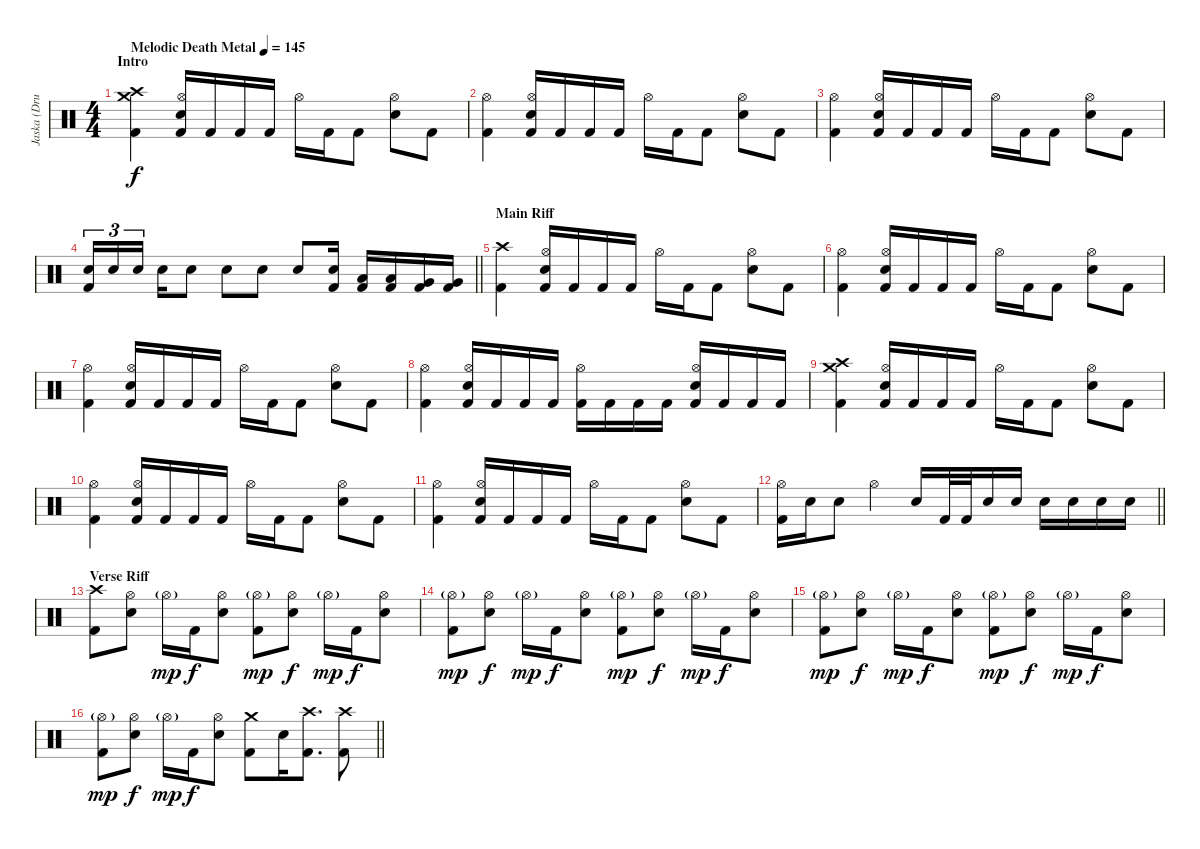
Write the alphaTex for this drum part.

\track ("Jaska (Drums)" "Jaska (Dru") {instrument percussion}
\staff {score}
\articulation defaults
\ts (4 4)
\section ("" "Intro")
\tempo (145 "Melodic Death Metal")
\clef neutral
\ks c
("Crash medium (hit)" "Crash high (hit)" "Kick (hit) 2").4{dy f volume 16 balance 8} ("Hi-Hat (open)" "Electric Snare (hit)" "Kick (hit) 2").16 "Kick (hit) 2".16 "Kick (hit) 2".16 "Kick (hit) 2".16 "Hi-Hat (open)".16 "Kick (hit) 2".16 "Kick (hit) 2".8 ("Hi-Hat (open)" "Electric Snare (hit)").8 "Kick (hit) 2".8 |
("Hi-Hat (open)" "Kick (hit) 2").4 ("Hi-Hat (open)" "Electric Snare (hit)" "Kick (hit) 2").16 "Kick (hit) 2".16 "Kick (hit) 2".16 "Kick (hit) 2".16 "Hi-Hat (open)".16 "Kick (hit) 2".16 "Kick (hit) 2".8 ("Hi-Hat (open)" "Electric Snare (hit)").8 "Kick (hit) 2".8 |
("Hi-Hat (open)" "Kick (hit) 2").4 ("Hi-Hat (open)" "Electric Snare (hit)" "Kick (hit) 2").16 "Kick (hit) 2".16 "Kick (hit) 2".16 "Kick (hit) 2".16 "Hi-Hat (open)".16 "Kick (hit) 2".16 "Kick (hit) 2".8 ("Hi-Hat (open)" "Electric Snare (hit)").8 "Kick (hit) 2".8 |
\barLineRight lightlight
("Electric Snare (hit)" "Kick (hit) 2").16{tu (3 2)} "Electric Snare (hit)".16{tu (3 2)} "Electric Snare (hit)".16{tu (3 2) beam splitsecondary} "Electric Snare (hit)".16 "Electric Snare (hit)".8 "Electric Snare (hit)".8 "Electric Snare (hit)".8 "Electric Snare (hit)".8 ("Electric Snare (hit)" "Kick (hit) 2").16 ("Low Tom (hit)" "Kick (hit) 2").16 ("Low Tom (hit)" "Kick (hit) 2").16 ("Very Low Tom (hit)" "Kick (hit) 2").16 ("Very Low Tom (hit)" "Kick (hit) 2").16 |
\section ("" "Main Riff")
("Crash high (hit)" "Kick (hit) 2").4{volume 16 balance 8} ("Hi-Hat (open)" "Electric Snare (hit)" "Kick (hit) 2").16 "Kick (hit) 2".16 "Kick (hit) 2".16 "Kick (hit) 2".16 "Hi-Hat (open)".16 "Kick (hit) 2".16 "Kick (hit) 2".8 ("Hi-Hat (open)" "Electric Snare (hit)").8 "Kick (hit) 2".8 |
("Hi-Hat (open)" "Kick (hit) 2").4 ("Hi-Hat (open)" "Electric Snare (hit)" "Kick (hit) 2").16 "Kick (hit) 2".16 "Kick (hit) 2".16 "Kick (hit) 2".16 "Hi-Hat (open)".16 "Kick (hit) 2".16 "Kick (hit) 2".8 ("Hi-Hat (open)" "Electric Snare (hit)").8 "Kick (hit) 2".8 |
("Hi-Hat (open)" "Kick (hit) 2").4 ("Hi-Hat (open)" "Electric Snare (hit)" "Kick (hit) 2").16 "Kick (hit) 2".16 "Kick (hit) 2".16 "Kick (hit) 2".16 "Hi-Hat (open)".16 "Kick (hit) 2".16 "Kick (hit) 2".8 ("Hi-Hat (open)" "Electric Snare (hit)").8 "Kick (hit) 2".8 |
("Hi-Hat (open)" "Kick (hit) 2").4 ("Hi-Hat (open)" "Electric Snare (hit)" "Kick (hit) 2").16 "Kick (hit) 2".16 "Kick (hit) 2".16 "Kick (hit) 2".16 ("Hi-Hat (open)" "Kick (hit) 2").16 "Kick (hit) 2".16 "Kick (hit) 2".16 "Kick (hit) 2".16 ("Hi-Hat (open)" "Electric Snare (hit)" "Kick (hit) 2").16 "Kick (hit) 2".16 "Kick (hit) 2".16 "Kick (hit) 2".16 |
("Crash medium (hit)" "Crash high (hit)" "Kick (hit) 2").4 ("Hi-Hat (open)" "Electric Snare (hit)" "Kick (hit) 2").16 "Kick (hit) 2".16 "Kick (hit) 2".16 "Kick (hit) 2".16 "Hi-Hat (open)".16 "Kick (hit) 2".16 "Kick (hit) 2".8 ("Hi-Hat (open)" "Electric Snare (hit)").8 "Kick (hit) 2".8 |
("Hi-Hat (open)" "Kick (hit) 2").4 ("Hi-Hat (open)" "Electric Snare (hit)" "Kick (hit) 2").16 "Kick (hit) 2".16 "Kick (hit) 2".16 "Kick (hit) 2".16 "Hi-Hat (open)".16 "Kick (hit) 2".16 "Kick (hit) 2".8 ("Hi-Hat (open)" "Electric Snare (hit)").8 "Kick (hit) 2".8 |
("Hi-Hat (open)" "Kick (hit) 2").4 ("Hi-Hat (open)" "Electric Snare (hit)" "Kick (hit) 2").16 "Kick (hit) 2".16 "Kick (hit) 2".16 "Kick (hit) 2".16 "Hi-Hat (open)".16 "Kick (hit) 2".16 "Kick (hit) 2".8 ("Hi-Hat (open)" "Electric Snare (hit)").8 "Kick (hit) 2".8 |
\barLineRight lightlight
("Hi-Hat (open)" "Kick (hit) 2").16 "Electric Snare (hit)".16 "Electric Snare (hit)".8 "Hi-Hat (open)".4 "Electric Snare (hit)".16 "Kick (hit) 2".32 "Kick (hit) 2".32 "Electric Snare (hit)".16 "Electric Snare (hit)".16 "Electric Snare (hit)".16 "Electric Snare (hit)".16 "Electric Snare (hit)".16 "Electric Snare (hit)".16 |
\section ("" "Verse Riff")
("Crash high (hit)" "Kick (hit) 2").8 ("Hi-Hat (open)" "Electric Snare (hit)").8 "Hi-Hat (open)"{g}.16{dy mp} "Kick (hit) 2".16{dy f} ("Hi-Hat (open)" "Electric Snare (hit)").8 ("Hi-Hat (open)"{g} "Kick (hit) 2").8{dy mp} ("Hi-Hat (open)" "Electric Snare (hit)").8{dy f} "Hi-Hat (open)"{g}.16{dy mp} "Kick (hit) 2".16{dy f} ("Hi-Hat (open)" "Electric Snare (hit)").8 |
("Hi-Hat (open)"{g} "Kick (hit) 2").8{dy mp} ("Hi-Hat (open)" "Electric Snare (hit)").8{dy f} "Hi-Hat (open)"{g}.16{dy mp} "Kick (hit) 2".16{dy f} ("Hi-Hat (open)" "Electric Snare (hit)").8 ("Hi-Hat (open)"{g} "Kick (hit) 2").8{dy mp} ("Hi-Hat (open)" "Electric Snare (hit)").8{dy f} "Hi-Hat (open)"{g}.16{dy mp} "Kick (hit) 2".16{dy f} ("Hi-Hat (open)" "Electric Snare (hit)").8 |
("Hi-Hat (open)"{g} "Kick (hit) 2").8{dy mp} ("Hi-Hat (open)" "Electric Snare (hit)").8{dy f} "Hi-Hat (open)"{g}.16{dy mp} "Kick (hit) 2".16{dy f} ("Hi-Hat (open)" "Electric Snare (hit)").8 ("Hi-Hat (open)"{g} "Kick (hit) 2").8{dy mp} ("Hi-Hat (open)" "Electric Snare (hit)").8{dy f} "Hi-Hat (open)"{g}.16{dy mp} "Kick (hit) 2".16{dy f} ("Hi-Hat (open)" "Electric Snare (hit)").8 |
\barLineRight lightlight
("Hi-Hat (open)"{g} "Kick (hit) 2").8{dy mp} ("Hi-Hat (open)" "Electric Snare (hit)").8{dy f} "Hi-Hat (open)"{g}.16{dy mp} "Kick (hit) 2".16{dy f} ("Hi-Hat (open)" "Electric Snare (hit)").8 ("Crash medium (hit)" "Kick (hit) 2").8 "Electric Snare (hit)".16 ("Crash high (hit)" "Kick (hit) 2").8{d} ("Crash high (hit)" "Kick (hit) 2").8
